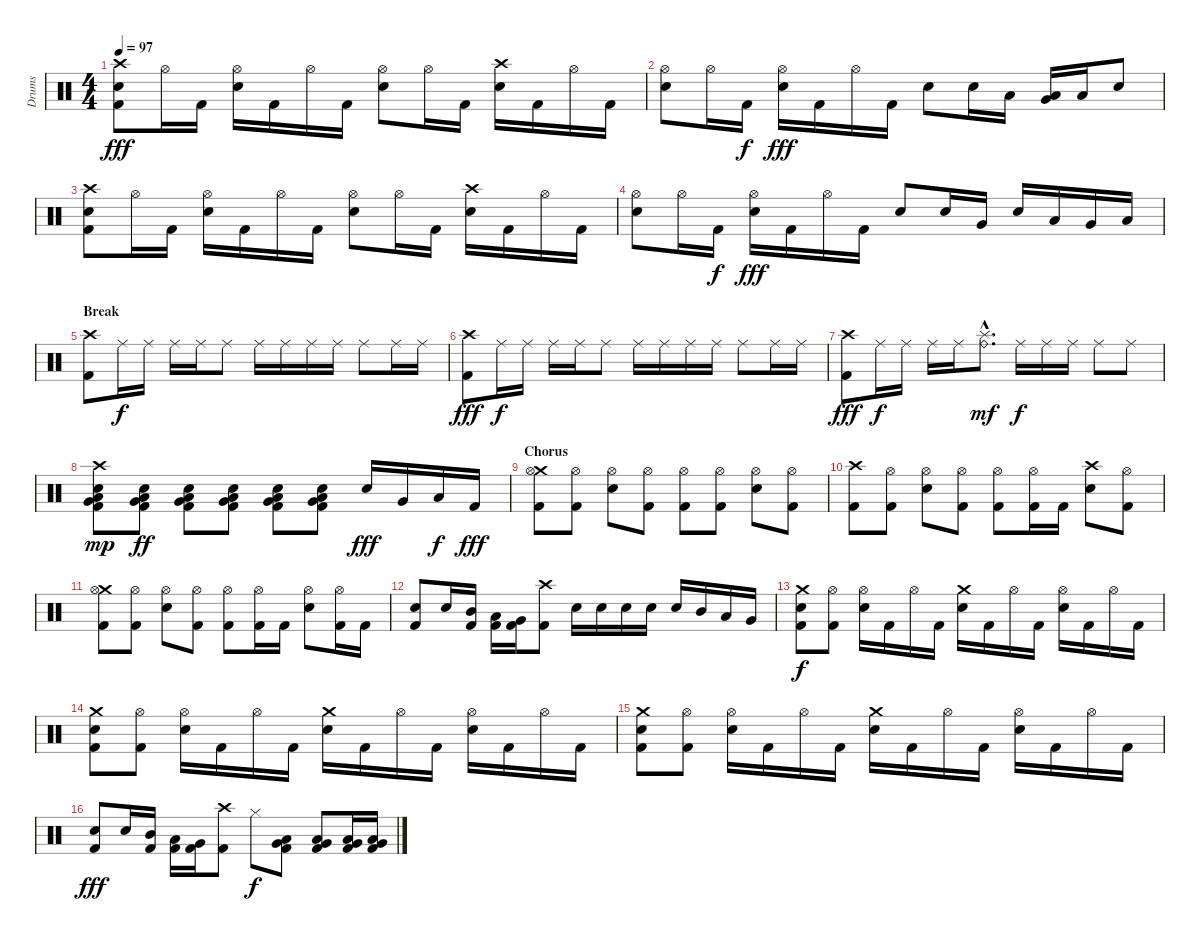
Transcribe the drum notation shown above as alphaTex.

\track ("Drums" "Drums") {instrument percussion}
\staff {score}
\articulation defaults
\ts (4 4)
\tempo 97
\clef neutral
\ks c
("Crash high (hit)" "Electric Snare (hit)" "Kick (hit) 2").8{dy fff} "Hi-Hat (open)".16 "Kick (hit) 2".16 ("Hi-Hat (open)" "Electric Snare (hit)").16 "Kick (hit) 2".16 "Hi-Hat (open)".16 "Kick (hit) 2".16 ("Hi-Hat (open)" "Electric Snare (hit)").8 "Hi-Hat (open)".16 "Kick (hit) 2".16 ("Crash high (hit)" "Electric Snare (hit)").16 "Kick (hit) 2".16 "Hi-Hat (open)".16 "Kick (hit) 2".16 |
("Hi-Hat (open)" "Electric Snare (hit)").8 "Hi-Hat (open)".16 "Kick (hit) 2".16{dy f} ("Hi-Hat (open)" "Electric Snare (hit)").16{dy fff} "Kick (hit) 2".16 "Hi-Hat (open)".16 "Kick (hit) 2".16 "Electric Snare (hit)".8 "Electric Snare (hit)".16 "Low Tom (hit)".16 ("Very Low Tom (hit)" "Low Floor Tom (hit)").16 "Low Tom (hit)".16 "Electric Snare (hit)".8 |
("Crash high (hit)" "Electric Snare (hit)" "Kick (hit) 2").8 "Hi-Hat (open)".16 "Kick (hit) 2".16 ("Hi-Hat (open)" "Electric Snare (hit)").16 "Kick (hit) 2".16 "Hi-Hat (open)".16 "Kick (hit) 2".16 ("Hi-Hat (open)" "Electric Snare (hit)").8 "Hi-Hat (open)".16 "Kick (hit) 2".16 ("Crash high (hit)" "Electric Snare (hit)").16 "Kick (hit) 2".16 "Hi-Hat (open)".16 "Kick (hit) 2".16 |
("Hi-Hat (open)" "Electric Snare (hit)").8 "Hi-Hat (open)".16 "Kick (hit) 2".16{dy f} ("Hi-Hat (open)" "Electric Snare (hit)").16{dy fff} "Kick (hit) 2".16 "Hi-Hat (open)".16 "Kick (hit) 2".16 "Electric Snare (hit)".8 "Electric Snare (hit)".16 "Very Low Tom (hit)".16 "Electric Snare (hit)".16 "Low Tom (hit)".16 "Very Low Tom (hit)".16 "Low Floor Tom (hit)".16 |
\section ("" "Break")
("Crash high (hit)" "Kick (hit) 2").8 "Ride (middle)".16{dy f} "Ride (middle)".16 "Ride (middle)".16 "Ride (middle)".16 "Ride (middle)".8 "Ride (middle)".16 "Ride (middle)".16 "Ride (middle)".16 "Ride (middle)".16 "Ride (middle)".8 "Ride (middle)".16 "Ride (middle)".16 |
("Crash high (hit)" "Kick (hit) 2").8{dy fff} "Ride (middle)".16{dy f} "Ride (middle)".16 "Ride (middle)".16 "Ride (middle)".16 "Ride (middle)".8 "Ride (middle)".16 "Ride (middle)".16 "Ride (middle)".16 "Ride (middle)".16 "Ride (middle)".8 "Ride (middle)".16 "Ride (middle)".16 |
("Crash high (hit)" "Kick (hit) 2").8{dy fff} "Ride (middle)".16{dy f} "Ride (middle)".16 "Ride (middle)".16 "Ride (middle)".16 ("Splash (hit)"{hac} "Ride (bell)"{hac}).8{d dy mf} "Ride (middle)".16{dy f} "Ride (middle)".16 "Ride (middle)".16 "Ride (middle)".8 "Ride (middle)".8 |
("Crash high (hit)" "Electric Snare (hit)" "Very Low Tom (hit)" "Low Floor Tom (hit)" "Kick (hit) 2").8{dy mp} ("Electric Snare (hit)" "Very Low Tom (hit)" "Low Floor Tom (hit)" "Kick (hit) 2").8{dy ff} ("Electric Snare (hit)" "Very Low Tom (hit)" "Low Floor Tom (hit)" "Kick (hit) 2").8 ("Electric Snare (hit)" "Very Low Tom (hit)" "Low Floor Tom (hit)" "Kick (hit) 2").8 ("Electric Snare (hit)" "Very Low Tom (hit)" "Low Floor Tom (hit)" "Kick (hit) 2").8 ("Electric Snare (hit)" "Very Low Tom (hit)" "Low Floor Tom (hit)" "Kick (hit) 2").8 "Electric Snare (hit)".16{dy fff} "Very Low Tom (hit)".16 "Low Floor Tom (hit)".16{dy f} "Kick (hit) 2".16{dy fff} |
\section ("" "Chorus")
("Crash medium (hit)" "Hi-Hat (open)" "Kick (hit) 2").8 ("Hi-Hat (open)" "Kick (hit) 2").8 ("Hi-Hat (open)" "Electric Snare (hit)").8 ("Hi-Hat (open)" "Kick (hit) 2").8 ("Hi-Hat (open)" "Kick (hit) 2").8 ("Hi-Hat (open)" "Kick (hit) 2").8 ("Hi-Hat (open)" "Electric Snare (hit)").8 ("Hi-Hat (open)" "Kick (hit) 2").8 |
("Crash high (hit)" "Kick (hit) 2").8 ("Hi-Hat (open)" "Kick (hit) 2").8 ("Hi-Hat (open)" "Electric Snare (hit)").8 ("Hi-Hat (open)" "Kick (hit) 2").8 ("Hi-Hat (open)" "Kick (hit) 2").8 ("Hi-Hat (open)" "Kick (hit) 2").16 "Kick (hit) 2".16 ("Crash high (hit)" "Electric Snare (hit)").8 ("Hi-Hat (open)" "Kick (hit) 2").8 |
("Crash medium (hit)" "Hi-Hat (open)" "Kick (hit) 2").8 ("Hi-Hat (open)" "Kick (hit) 2").8 ("Hi-Hat (open)" "Electric Snare (hit)").8 ("Hi-Hat (open)" "Kick (hit) 2").8 ("Hi-Hat (open)" "Kick (hit) 2").8 ("Hi-Hat (open)" "Kick (hit) 2").16 "Kick (hit) 2".16 ("Hi-Hat (open)" "Electric Snare (hit)").8 ("Hi-Hat (open)" "Kick (hit) 2").16 "Kick (hit) 2".16 |
("Electric Snare (hit)" "Kick (hit) 2").8 "Electric Snare (hit)".16 ("Mid Tom (hit)" "Kick (hit) 2").16 ("Low Tom (hit)" "Kick (hit) 2").16 ("Very Low Tom (hit)" "Kick (hit) 2").16 ("Crash high (hit)" "Kick (hit) 2").8 "Electric Snare (hit)".16 "Electric Snare (hit)".16 "Electric Snare (hit)".16 "Electric Snare (hit)".16 "Electric Snare (hit)".16 "Mid Tom (hit)".16 "Low Tom (hit)".16 "Very Low Tom (hit)".16 |
("Crash medium (hit)" "Electric Snare (hit)" "Kick (hit) 2").8{dy f} ("Hi-Hat (open)" "Kick (hit) 2").8 ("Hi-Hat (open)" "Electric Snare (hit)").16 "Kick (hit) 2".16 "Hi-Hat (open)".16 "Kick (hit) 2".16 ("Crash medium (hit)" "Electric Snare (hit)").16 "Kick (hit) 2".16 "Hi-Hat (open)".16 "Kick (hit) 2".16 ("Hi-Hat (open)" "Electric Snare (hit)").16 "Kick (hit) 2".16 "Hi-Hat (open)".16 "Kick (hit) 2".16 |
("Crash medium (hit)" "Electric Snare (hit)" "Kick (hit) 2").8 ("Hi-Hat (open)" "Kick (hit) 2").8 ("Hi-Hat (open)" "Electric Snare (hit)").16 "Kick (hit) 2".16 "Hi-Hat (open)".16 "Kick (hit) 2".16 ("Crash medium (hit)" "Electric Snare (hit)").16 "Kick (hit) 2".16 "Hi-Hat (open)".16 "Kick (hit) 2".16 ("Hi-Hat (open)" "Electric Snare (hit)").16 "Kick (hit) 2".16 "Hi-Hat (open)".16 "Kick (hit) 2".16 |
("Crash medium (hit)" "Electric Snare (hit)" "Kick (hit) 2").8 ("Hi-Hat (open)" "Kick (hit) 2").8 ("Hi-Hat (open)" "Electric Snare (hit)").16 "Kick (hit) 2".16 "Hi-Hat (open)".16 "Kick (hit) 2".16 ("Crash medium (hit)" "Electric Snare (hit)").16 "Kick (hit) 2".16 "Hi-Hat (open)".16 "Kick (hit) 2".16 ("Hi-Hat (open)" "Electric Snare (hit)").16 "Kick (hit) 2".16 "Hi-Hat (open)".16 "Kick (hit) 2".16 |
("Electric Snare (hit)" "Kick (hit) 2").8{dy fff} "Electric Snare (hit)".16 ("Mid Tom (hit)" "Kick (hit) 2").16 ("Low Tom (hit)" "Kick (hit) 2").16 ("Very Low Tom (hit)" "Kick (hit) 2").16 ("Crash high (hit)" "Kick (hit) 2").8 "Hi-Hat (closed)".8{dy f} ("Low Tom (hit)" "Very Low Tom (hit)" "Kick (hit) 2").8 ("Very Low Tom (hit)" "Low Tom (hit)" "Kick (hit) 2").8 ("Very Low Tom (hit)" "Low Floor Tom (hit)" "Kick (hit) 2").16 ("Very Low Tom (hit)" "Low Floor Tom (hit)" "Kick (hit) 2").16
